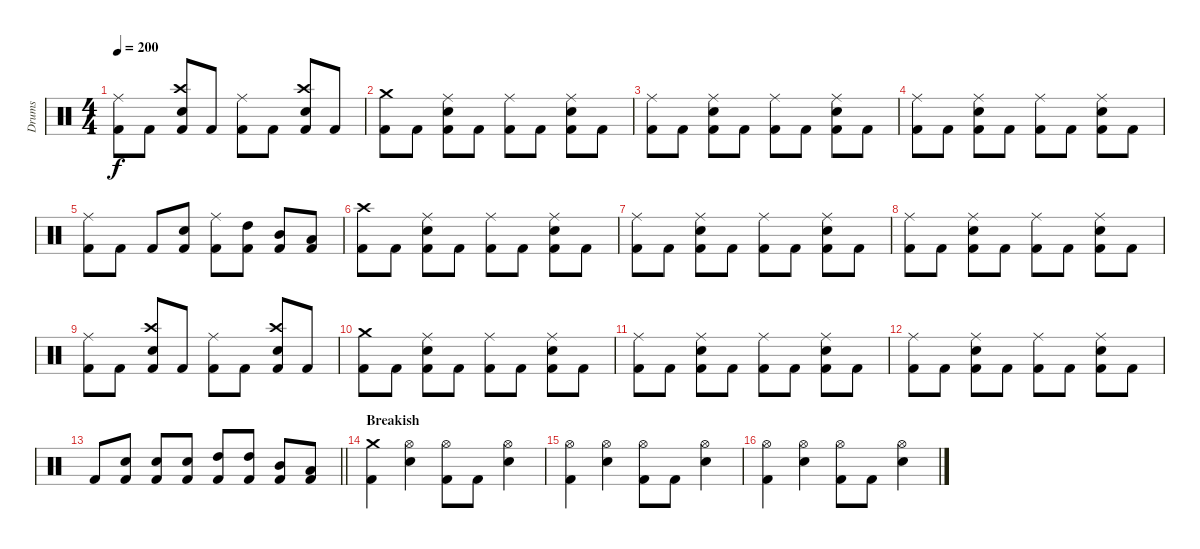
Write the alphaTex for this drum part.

\track ("Drums" "Drums") {instrument percussion}
\staff {score}
\articulation defaults
\ts (4 4)
\tempo 200
\clef neutral
\ks c
("Ride (middle)" "Kick (hit) 2").8{dy f} "Kick (hit) 2".8 ("Crash high (hit)" "Snare (hit) 2" "Kick (hit) 2").8 "Kick (hit) 2".8 ("Ride (middle)" "Kick (hit) 2").8 "Kick (hit) 2".8 ("Crash high (hit)" "Snare (hit) 2" "Kick (hit) 2").8 "Kick (hit) 2".8 |
("Crash medium (hit)" "Kick (hit) 2").8 "Kick (hit) 2".8 ("Ride (middle)" "Snare (hit) 2" "Kick (hit) 2").8 "Kick (hit) 2".8 ("Ride (middle)" "Kick (hit) 2").8 "Kick (hit) 2".8 ("Ride (middle)" "Snare (hit) 2" "Kick (hit) 2").8 "Kick (hit) 2".8 |
("Ride (middle)" "Kick (hit) 2").8 "Kick (hit) 2".8 ("Ride (middle)" "Snare (hit) 2" "Kick (hit) 2").8 "Kick (hit) 2".8 ("Ride (middle)" "Kick (hit) 2").8 "Kick (hit) 2".8 ("Ride (middle)" "Snare (hit) 2" "Kick (hit) 2").8 "Kick (hit) 2".8 |
("Ride (middle)" "Kick (hit) 2").8 "Kick (hit) 2".8 ("Ride (middle)" "Snare (hit) 2" "Kick (hit) 2").8 "Kick (hit) 2".8 ("Ride (middle)" "Kick (hit) 2").8 "Kick (hit) 2".8 ("Ride (middle)" "Snare (hit) 2" "Kick (hit) 2").8 "Kick (hit) 2".8 |
("Ride (middle)" "Kick (hit) 2").8 "Kick (hit) 2".8 "Kick (hit) 2".8 ("Snare (hit) 2" "Kick (hit) 2").8 ("Ride (middle)" "Kick (hit) 2").8 ("High Tom (hit)" "Kick (hit) 2").8 ("Mid Tom (hit)" "Kick (hit) 2").8 ("Low Tom (hit)" "Kick (hit) 2").8 |
("Crash high (hit)" "Kick (hit) 2").8 "Kick (hit) 2".8 ("Ride (middle)" "Snare (hit) 2" "Kick (hit) 2").8 "Kick (hit) 2".8 ("Ride (middle)" "Kick (hit) 2").8 "Kick (hit) 2".8 ("Ride (middle)" "Snare (hit) 2" "Kick (hit) 2").8 "Kick (hit) 2".8 |
("Ride (middle)" "Kick (hit) 2").8 "Kick (hit) 2".8 ("Ride (middle)" "Snare (hit) 2" "Kick (hit) 2").8 "Kick (hit) 2".8 ("Ride (middle)" "Kick (hit) 2").8 "Kick (hit) 2".8 ("Ride (middle)" "Snare (hit) 2" "Kick (hit) 2").8 "Kick (hit) 2".8 |
("Ride (middle)" "Kick (hit) 2").8 "Kick (hit) 2".8 ("Ride (middle)" "Snare (hit) 2" "Kick (hit) 2").8 "Kick (hit) 2".8 ("Ride (middle)" "Kick (hit) 2").8 "Kick (hit) 2".8 ("Ride (middle)" "Snare (hit) 2" "Kick (hit) 2").8 "Kick (hit) 2".8 |
("Ride (middle)" "Kick (hit) 2").8 "Kick (hit) 2".8 ("Crash high (hit)" "Snare (hit) 2" "Kick (hit) 2").8 "Kick (hit) 2".8 ("Ride (middle)" "Kick (hit) 2").8 "Kick (hit) 2".8 ("Crash high (hit)" "Snare (hit) 2" "Kick (hit) 2").8 "Kick (hit) 2".8 |
("Crash medium (hit)" "Kick (hit) 2").8 "Kick (hit) 2".8 ("Ride (middle)" "Snare (hit) 2" "Kick (hit) 2").8 "Kick (hit) 2".8 ("Ride (middle)" "Kick (hit) 2").8 "Kick (hit) 2".8 ("Ride (middle)" "Snare (hit) 2" "Kick (hit) 2").8 "Kick (hit) 2".8 |
("Ride (middle)" "Kick (hit) 2").8 "Kick (hit) 2".8 ("Ride (middle)" "Snare (hit) 2" "Kick (hit) 2").8 "Kick (hit) 2".8 ("Ride (middle)" "Kick (hit) 2").8 "Kick (hit) 2".8 ("Ride (middle)" "Snare (hit) 2" "Kick (hit) 2").8 "Kick (hit) 2".8 |
("Ride (middle)" "Kick (hit) 2").8 "Kick (hit) 2".8 ("Ride (middle)" "Snare (hit) 2" "Kick (hit) 2").8 "Kick (hit) 2".8 ("Ride (middle)" "Kick (hit) 2").8 "Kick (hit) 2".8 ("Ride (middle)" "Snare (hit) 2" "Kick (hit) 2").8 "Kick (hit) 2".8 |
\barLineRight lightlight "Kick (hit) 2".8
("Snare (hit) 2" "Kick (hit) 2").8 ("Snare (hit) 2" "Kick (hit) 2").8 ("Snare (hit) 2" "Kick (hit) 2").8 ("High Tom (hit)" "Kick (hit) 2").8 ("High Tom (hit)" "Kick (hit) 2").8 ("Mid Tom (hit)" "Kick (hit) 2").8 ("Low Tom (hit)" "Kick (hit) 2").8 |
\section ("" "Breakish")
("Crash medium (hit)" "Kick (hit) 2").4 ("Hi-Hat (open)" "Snare (hit) 2").4 ("Hi-Hat (open)" "Kick (hit) 2").8 "Kick (hit) 2".8 ("Hi-Hat (open)" "Snare (hit) 2").4 |
("Hi-Hat (open)" "Kick (hit) 2").4 ("Hi-Hat (open)" "Snare (hit) 2").4 ("Hi-Hat (open)" "Kick (hit) 2").8 "Kick (hit) 2".8 ("Hi-Hat (open)" "Snare (hit) 2").4 |
("Hi-Hat (open)" "Kick (hit) 2").4 ("Hi-Hat (open)" "Snare (hit) 2").4 ("Hi-Hat (open)" "Kick (hit) 2").8 "Kick (hit) 2".8 ("Hi-Hat (open)" "Snare (hit) 2").4
